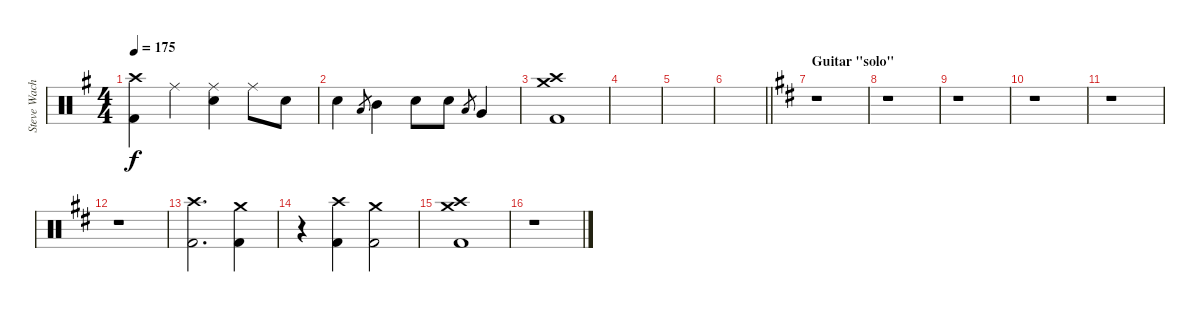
\track ("Steve Wacholz" "Steve Wach") {instrument percussion}
\staff {score}
\articulation defaults
\ts (4 4)
\tempo 175
\clef neutral
\ks eminor
("Crash high (hit)" "Kick (hit) 2").4{dy f} "Ride (middle)".4 ("Ride (middle)" "Electric Snare (hit)").4 "Ride (middle)".8 "Electric Snare (hit)".8 |
"Electric Snare (hit)".4 "Low Tom (hit)".8{gr} "Mid Tom (hit)".4 "Electric Snare (hit)".8 "Electric Snare (hit)".8 "Low Tom (hit)".8{gr} "Very Low Tom (hit)".4 |
("Crash high (hit)" "Crash medium (hit)" "Kick (hit) 2").1 |
|
|
\barLineRight lightlight
|
\section ("" "Guitar \"solo\"")
\ks bminor
r.1 |
r.1 |
r.1 |
r.1 |
r.1 |
r.1 |
("Crash high (hit)" "Kick (hit) 2").2{d} ("Crash medium (hit)" "Kick (hit) 2").4 |
r.4 ("Crash high (hit)" "Kick (hit) 2").4 ("Crash medium (hit)" "Kick (hit) 2").2 |
("Crash high (hit)" "Crash medium (hit)" "Kick (hit) 2").1 |
r.1
